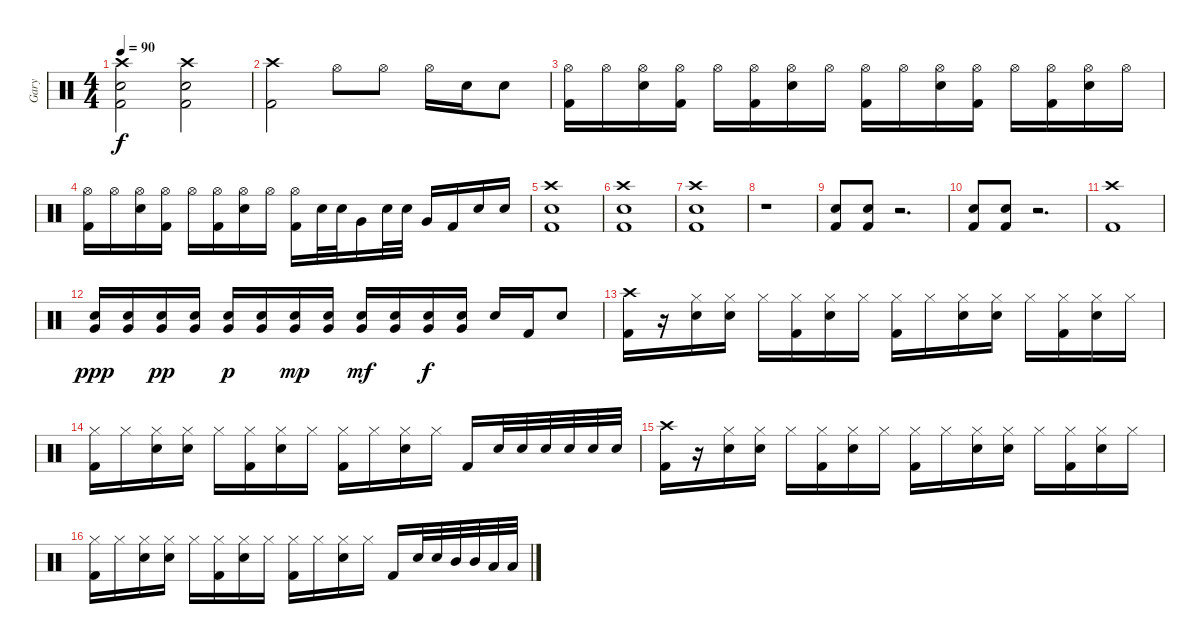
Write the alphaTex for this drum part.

\track ("Gary" "Gary") {instrument percussion}
\staff {score}
\articulation defaults
\ts (4 4)
\tempo 90
\clef neutral
\ks c
("Crash high (hit)" "Electric Snare (hit)" "Kick (hit) 2").2{dy f} ("Crash high (hit)" "Electric Snare (hit)" "Kick (hit) 2").2 |
("Crash high (hit)" "Kick (hit) 2").2 "Hi-Hat (open)".8 "Hi-Hat (open)".8 "Hi-Hat (open)".16 "Electric Snare (hit)".16 "Electric Snare (hit)".8 |
("Hi-Hat (open)" "Kick (hit) 2").16 "Hi-Hat (open)".16 ("Hi-Hat (open)" "Electric Snare (hit)").16 ("Hi-Hat (open)" "Kick (hit) 2").16 "Hi-Hat (open)".16 ("Hi-Hat (open)" "Kick (hit) 2").16 ("Hi-Hat (open)" "Electric Snare (hit)").16 "Hi-Hat (open)".16 ("Hi-Hat (open)" "Kick (hit) 2").16 "Hi-Hat (open)".16 ("Hi-Hat (open)" "Electric Snare (hit)").16 ("Hi-Hat (open)" "Kick (hit) 2").16 "Hi-Hat (open)".16 ("Hi-Hat (open)" "Kick (hit) 2").16 ("Hi-Hat (open)" "Electric Snare (hit)").16 "Hi-Hat (open)".16 |
("Hi-Hat (open)" "Kick (hit) 2").16 "Hi-Hat (open)".16 ("Hi-Hat (open)" "Electric Snare (hit)").16 ("Hi-Hat (open)" "Kick (hit) 2").16 "Hi-Hat (open)".16 ("Hi-Hat (open)" "Kick (hit) 2").16 ("Hi-Hat (open)" "Electric Snare (hit)").16 "Hi-Hat (open)".16 ("Hi-Hat (open)" "Kick (hit) 2").16 "Electric Snare (hit)".32 "Electric Snare (hit)".32 "Very Low Tom (hit)".16 "Electric Snare (hit)".32 "Electric Snare (hit)".32 "Very Low Tom (hit)".16 "Kick (hit) 2".16 "Electric Snare (hit)".16 "Electric Snare (hit)".16 |
("Crash high (hit)" "Electric Snare (hit)" "Kick (hit) 2").1 |
("Crash high (hit)" "Electric Snare (hit)" "Kick (hit) 2").1 |
("Crash high (hit)" "Electric Snare (hit)" "Kick (hit) 2").1 |
r.1 |
("Electric Snare (hit)" "Kick (hit) 2").8 ("Electric Snare (hit)" "Kick (hit) 2").8 r.2{d} |
("Electric Snare (hit)" "Kick (hit) 2").8 ("Electric Snare (hit)" "Kick (hit) 2").8 r.2{d} |
("Crash high (hit)" "Kick (hit) 2").1 |
("Very Low Tom (hit)" "Electric Snare (hit)").16{dy ppp} ("Very Low Tom (hit)" "Electric Snare (hit)").16 ("Very Low Tom (hit)" "Electric Snare (hit)").16{dy pp} ("Very Low Tom (hit)" "Electric Snare (hit)").16 ("Very Low Tom (hit)" "Electric Snare (hit)").16{dy p} ("Very Low Tom (hit)" "Electric Snare (hit)").16 ("Very Low Tom (hit)" "Electric Snare (hit)").16{dy mp} ("Very Low Tom (hit)" "Electric Snare (hit)").16 ("Very Low Tom (hit)" "Electric Snare (hit)").16{dy mf} ("Very Low Tom (hit)" "Electric Snare (hit)").16 ("Very Low Tom (hit)" "Electric Snare (hit)").16{dy f} ("Very Low Tom (hit)" "Electric Snare (hit)").16 "Electric Snare (hit)".16 "Kick (hit) 2".16 "Electric Snare (hit)".8 |
("Crash high (hit)" "Kick (hit) 2").16 r.16 ("Hi-Hat (closed)" "Electric Snare (hit)").16 ("Hi-Hat (closed)" "Electric Snare (hit)").16 "Hi-Hat (closed)".16 ("Hi-Hat (closed)" "Kick (hit) 2").16 ("Hi-Hat (closed)" "Electric Snare (hit)").16 "Hi-Hat (closed)".16 ("Hi-Hat (closed)" "Kick (hit) 2").16 "Hi-Hat (closed)".16 ("Hi-Hat (closed)" "Electric Snare (hit)").16 ("Hi-Hat (closed)" "Electric Snare (hit)").16 "Hi-Hat (closed)".16 ("Hi-Hat (closed)" "Kick (hit) 2").16 ("Hi-Hat (closed)" "Electric Snare (hit)").16 "Hi-Hat (closed)".16 |
("Hi-Hat (closed)" "Kick (hit) 2").16 "Hi-Hat (closed)".16 ("Hi-Hat (closed)" "Electric Snare (hit)").16 ("Hi-Hat (closed)" "Electric Snare (hit)").16 "Hi-Hat (closed)".16 ("Hi-Hat (closed)" "Kick (hit) 2").16 ("Hi-Hat (closed)" "Electric Snare (hit)").16 "Hi-Hat (closed)".16 ("Hi-Hat (closed)" "Kick (hit) 2").16 "Hi-Hat (closed)".16 ("Hi-Hat (closed)" "Electric Snare (hit)").16 "Hi-Hat (closed)".16 "Kick (hit) 2".16 "Electric Snare (hit)".32 "Electric Snare (hit)".32 "Electric Snare (hit)".32 "Electric Snare (hit)".32 "Electric Snare (hit)".32 "Electric Snare (hit)".32 |
("Crash high (hit)" "Kick (hit) 2").16 r.16 ("Hi-Hat (closed)" "Electric Snare (hit)").16 ("Hi-Hat (closed)" "Electric Snare (hit)").16 "Hi-Hat (closed)".16 ("Hi-Hat (closed)" "Kick (hit) 2").16 ("Hi-Hat (closed)" "Electric Snare (hit)").16 "Hi-Hat (closed)".16 ("Hi-Hat (closed)" "Kick (hit) 2").16 "Hi-Hat (closed)".16 ("Hi-Hat (closed)" "Electric Snare (hit)").16 ("Hi-Hat (closed)" "Electric Snare (hit)").16 "Hi-Hat (closed)".16 ("Hi-Hat (closed)" "Kick (hit) 2").16 ("Hi-Hat (closed)" "Electric Snare (hit)").16 "Hi-Hat (closed)".16 |
("Hi-Hat (closed)" "Kick (hit) 2").16 "Hi-Hat (closed)".16 ("Hi-Hat (closed)" "Electric Snare (hit)").16 ("Hi-Hat (closed)" "Electric Snare (hit)").16 "Hi-Hat (closed)".16 ("Hi-Hat (closed)" "Kick (hit) 2").16 ("Hi-Hat (closed)" "Electric Snare (hit)").16 "Hi-Hat (closed)".16 ("Hi-Hat (closed)" "Kick (hit) 2").16 "Hi-Hat (closed)".16 ("Hi-Hat (closed)" "Electric Snare (hit)").16 "Hi-Hat (closed)".16 "Kick (hit) 2".16 "Electric Snare (hit)".32 "Electric Snare (hit)".32 "Mid Tom (hit)".32 "Mid Tom (hit)".32 "Low Tom (hit)".32 "Low Tom (hit)".32
